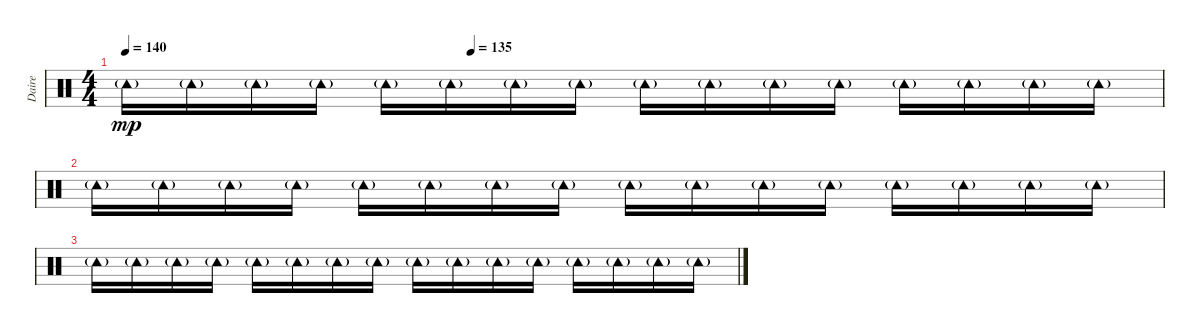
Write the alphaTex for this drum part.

\track ("Daire" "Daire") {instrument percussion}
\staff {score}
\articulation defaults
\ts (4 4)
\tempo 140
\tempo (135 0.3333333333333333)
\clef neutral
\ks c "Tambourine (hit)"{g}.16{dy mp} "Tambourine (hit)"{g}.16 "Tambourine (hit)"{g}.16 "Tambourine (hit)"{g}.16 "Tambourine (hit)"{g}.16 "Tambourine (hit)"{g}.16 "Tambourine (hit)"{g}.16 "Tambourine (hit)"{g}.16 "Tambourine (hit)"{g}.16 "Tambourine (hit)"{g}.16 "Tambourine (hit)"{g}.16 "Tambourine (hit)"{g}.16 "Tambourine (hit)"{g}.16 "Tambourine (hit)"{g}.16 "Tambourine (hit)"{g}.16 "Tambourine (hit)"{g}.16
|
"Tambourine (hit)"{g}.16{volume 0} "Tambourine (hit)"{g}.16 "Tambourine (hit)"{g}.16 "Tambourine (hit)"{g}.16 "Tambourine (hit)"{g}.16 "Tambourine (hit)"{g}.16 "Tambourine (hit)"{g}.16 "Tambourine (hit)"{g}.16 "Tambourine (hit)"{g}.16 "Tambourine (hit)"{g}.16 "Tambourine (hit)"{g}.16 "Tambourine (hit)"{g}.16 "Tambourine (hit)"{g}.16 "Tambourine (hit)"{g}.16 "Tambourine (hit)"{g}.16 "Tambourine (hit)"{g}.16 |
"Tambourine (hit)"{g}.16 "Tambourine (hit)"{g}.16 "Tambourine (hit)"{g}.16 "Tambourine (hit)"{g}.16 "Tambourine (hit)"{g}.16 "Tambourine (hit)"{g}.16 "Tambourine (hit)"{g}.16 "Tambourine (hit)"{g}.16 "Tambourine (hit)"{g}.16 "Tambourine (hit)"{g}.16 "Tambourine (hit)"{g}.16 "Tambourine (hit)"{g}.16 "Tambourine (hit)"{g}.16 "Tambourine (hit)"{g}.16 "Tambourine (hit)"{g}.16 "Tambourine (hit)"{g}.16
